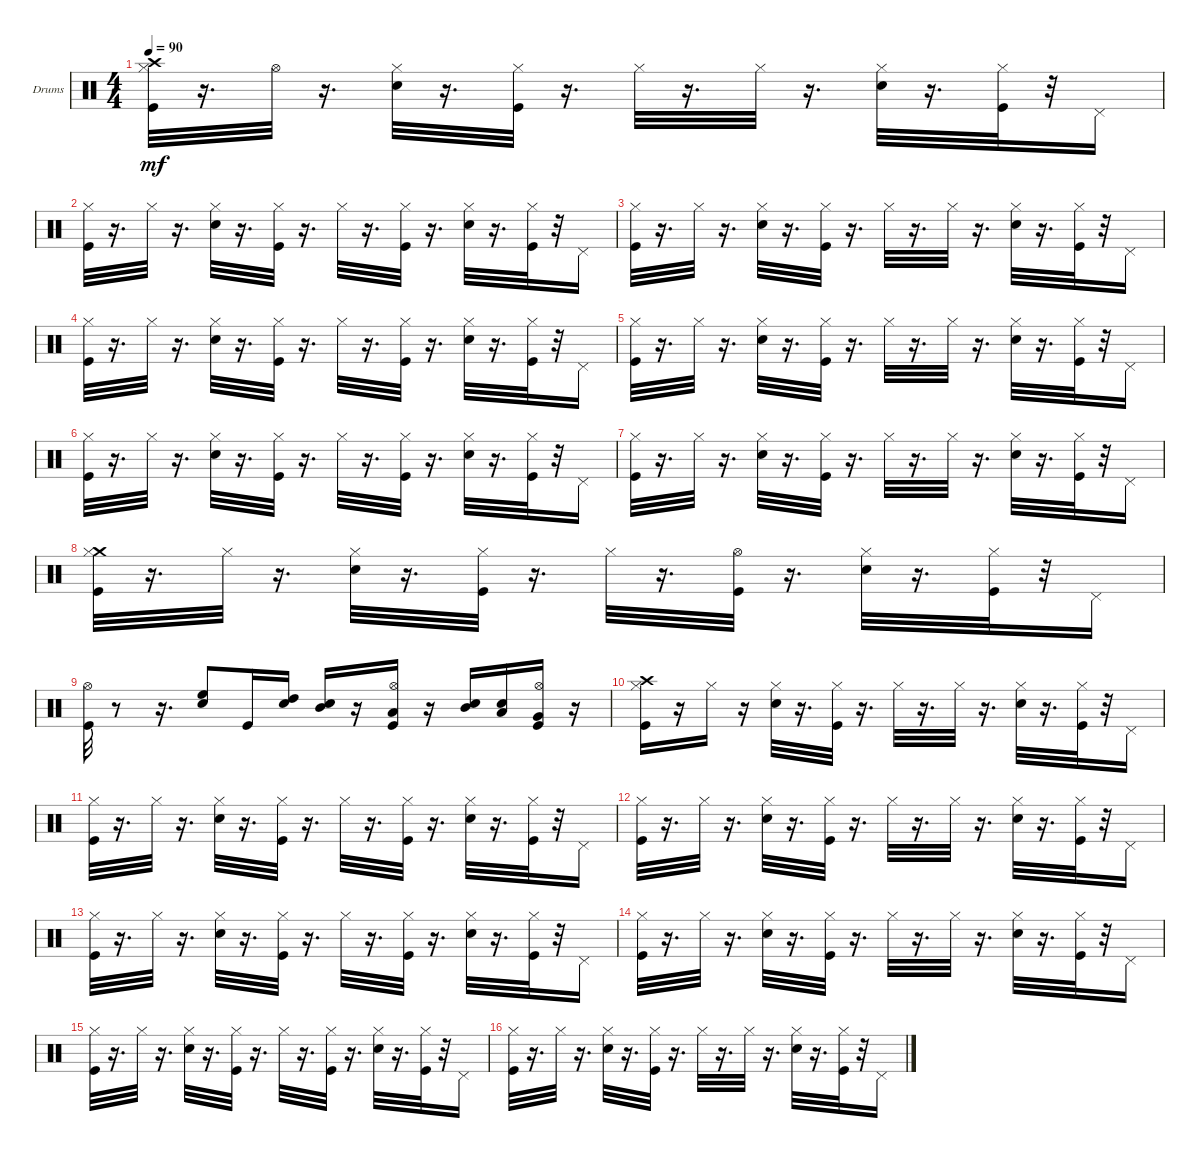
\bracketExtendMode groupsimilarinstruments
\firstSystemTrackNameOrientation horizontal
\otherSystemsTrackNameOrientation horizontal
\track ("Drumkit" "Drums") {instrument percussion}
\staff {score}
\articulation defaults
\ts (4 4)
\tempo 90
\clef neutral
\ks c
("Crash high (hit)" "Kick (hit)" "Hi-Hat (closed)").32{dy mf} r.16{d} "Hi-Hat (open)".32 r.16{d} ("Snare (hit) 2" "Hi-Hat (closed)").32 r.16{d} ("Kick (hit)" "Hi-Hat (closed)").32 r.16{d} "Hi-Hat (closed)".32 r.16{d} "Hi-Hat (closed)".32 r.16{d} ("Snare (hit) 2" "Hi-Hat (closed)").32 r.16{d} ("Kick (hit)" "Hi-Hat (closed)").32 r.32 "Pedal Hi-Hat (hit)".16 |
("Kick (hit)" "Hi-Hat (closed)").32 r.16{d} "Hi-Hat (closed)".32 r.16{d} ("Snare (hit) 2" "Hi-Hat (closed)").32 r.16{d} ("Kick (hit)" "Hi-Hat (closed)").32 r.16{d} "Hi-Hat (closed)".32 r.16{d} ("Kick (hit)" "Hi-Hat (closed)").32 r.16{d} ("Snare (hit) 2" "Hi-Hat (closed)").32 r.16{d} ("Kick (hit)" "Hi-Hat (closed)").32 r.32 "Pedal Hi-Hat (hit)".16 |
("Kick (hit)" "Hi-Hat (closed)").32 r.16{d} "Hi-Hat (closed)".32 r.16{d} ("Snare (hit) 2" "Hi-Hat (closed)").32 r.16{d} ("Kick (hit)" "Hi-Hat (closed)").32 r.16{d} "Hi-Hat (closed)".32 r.16{d} "Hi-Hat (closed)".32 r.16{d} ("Snare (hit) 2" "Hi-Hat (closed)").32 r.16{d} ("Kick (hit)" "Hi-Hat (closed)").32 r.32 "Pedal Hi-Hat (hit)".16 |
("Kick (hit)" "Hi-Hat (closed)").32 r.16{d} "Hi-Hat (closed)".32 r.16{d} ("Snare (hit) 2" "Hi-Hat (closed)").32 r.16{d} ("Kick (hit)" "Hi-Hat (closed)").32 r.16{d} "Hi-Hat (closed)".32 r.16{d} ("Kick (hit)" "Hi-Hat (closed)").32 r.16{d} ("Snare (hit) 2" "Hi-Hat (closed)").32 r.16{d} ("Kick (hit)" "Hi-Hat (closed)").32 r.32 "Pedal Hi-Hat (hit)".16 |
("Kick (hit)" "Hi-Hat (closed)").32 r.16{d} "Hi-Hat (closed)".32 r.16{d} ("Snare (hit) 2" "Hi-Hat (closed)").32 r.16{d} ("Kick (hit)" "Hi-Hat (closed)").32 r.16{d} "Hi-Hat (closed)".32 r.16{d} "Hi-Hat (closed)".32 r.16{d} ("Snare (hit) 2" "Hi-Hat (closed)").32 r.16{d} ("Kick (hit)" "Hi-Hat (closed)").32 r.32 "Pedal Hi-Hat (hit)".16 |
("Kick (hit)" "Hi-Hat (closed)").32 r.16{d} "Hi-Hat (closed)".32 r.16{d} ("Snare (hit) 2" "Hi-Hat (closed)").32 r.16{d} ("Kick (hit)" "Hi-Hat (closed)").32 r.16{d} "Hi-Hat (closed)".32 r.16{d} ("Kick (hit)" "Hi-Hat (closed)").32 r.16{d} ("Snare (hit) 2" "Hi-Hat (closed)").32 r.16{d} ("Kick (hit)" "Hi-Hat (closed)").32 r.32 "Pedal Hi-Hat (hit)".16 |
("Kick (hit)" "Hi-Hat (closed)").32 r.16{d} "Hi-Hat (closed)".32 r.16{d} ("Snare (hit) 2" "Hi-Hat (closed)").32 r.16{d} ("Kick (hit)" "Hi-Hat (closed)").32 r.16{d} "Hi-Hat (closed)".32 r.16{d} "Hi-Hat (closed)".32 r.16{d} ("Snare (hit) 2" "Hi-Hat (closed)").32 r.16{d} ("Kick (hit)" "Hi-Hat (closed)").32 r.32 "Pedal Hi-Hat (hit)".16 |
("Crash medium (hit)" "Hi-Hat (closed)" "Kick (hit)").32 r.16{d} "Hi-Hat (closed)".32 r.16{d} ("Snare (hit) 2" "Hi-Hat (closed)").32 r.16{d} ("Hi-Hat (closed)" "Kick (hit)").32 r.16{d} "Hi-Hat (closed)".32 r.16{d} ("Kick (hit)" "Hi-Hat (open)").32 r.16{d} ("Snare (hit) 2" "Hi-Hat (closed)").32 r.16{d} ("Hi-Hat (closed)" "Kick (hit)").32 r.32 "Pedal Hi-Hat (hit)".16 |
("Hi-Hat (open)" "Kick (hit)").32 r.8 r.16{d} ("Snare (hit) 2" "High Floor Tom (hit)").8 "Kick (hit)".16 ("Snare (hit) 2" "High Tom (hit)").16 ("Snare (hit) 2" "Mid Tom (hit)").16 r.16 ("Low Tom (hit)" "Hi-Hat (open)" "Kick (hit)").16 r.16 ("Snare (hit) 2" "Mid Tom (hit)").16 ("Snare (hit) 2" "Low Tom (hit)").16 ("Very Low Tom (hit)" "Hi-Hat (open)" "Kick (hit)").16 r.16 |
("Crash high (hit)" "Hi-Hat (closed)" "Kick (hit)").16 r.16 "Hi-Hat (closed)".16 r.16 ("Snare (hit) 2" "Hi-Hat (closed)").32 r.16{d} ("Hi-Hat (closed)" "Kick (hit)").32 r.16{d} "Hi-Hat (closed)".32 r.16{d} "Hi-Hat (closed)".32 r.16{d} ("Snare (hit) 2" "Hi-Hat (closed)").32 r.16{d} ("Hi-Hat (closed)" "Kick (hit)").32 r.32 "Pedal Hi-Hat (hit)".16 |
("Kick (hit)" "Hi-Hat (closed)").32 r.16{d} "Hi-Hat (closed)".32 r.16{d} ("Snare (hit) 2" "Hi-Hat (closed)").32 r.16{d} ("Kick (hit)" "Hi-Hat (closed)").32 r.16{d} "Hi-Hat (closed)".32 r.16{d} ("Kick (hit)" "Hi-Hat (closed)").32 r.16{d} ("Snare (hit) 2" "Hi-Hat (closed)").32 r.16{d} ("Kick (hit)" "Hi-Hat (closed)").32 r.32 "Pedal Hi-Hat (hit)".16 |
("Kick (hit)" "Hi-Hat (closed)").32 r.16{d} "Hi-Hat (closed)".32 r.16{d} ("Snare (hit) 2" "Hi-Hat (closed)").32 r.16{d} ("Kick (hit)" "Hi-Hat (closed)").32 r.16{d} "Hi-Hat (closed)".32 r.16{d} "Hi-Hat (closed)".32 r.16{d} ("Snare (hit) 2" "Hi-Hat (closed)").32 r.16{d} ("Kick (hit)" "Hi-Hat (closed)").32 r.32 "Pedal Hi-Hat (hit)".16 |
("Kick (hit)" "Hi-Hat (closed)").32 r.16{d} "Hi-Hat (closed)".32 r.16{d} ("Snare (hit) 2" "Hi-Hat (closed)").32 r.16{d} ("Kick (hit)" "Hi-Hat (closed)").32 r.16{d} "Hi-Hat (closed)".32 r.16{d} ("Kick (hit)" "Hi-Hat (closed)").32 r.16{d} ("Snare (hit) 2" "Hi-Hat (closed)").32 r.16{d} ("Kick (hit)" "Hi-Hat (closed)").32 r.32 "Pedal Hi-Hat (hit)".16 |
("Kick (hit)" "Hi-Hat (closed)").32 r.16{d} "Hi-Hat (closed)".32 r.16{d} ("Snare (hit) 2" "Hi-Hat (closed)").32 r.16{d} ("Kick (hit)" "Hi-Hat (closed)").32 r.16{d} "Hi-Hat (closed)".32 r.16{d} "Hi-Hat (closed)".32 r.16{d} ("Snare (hit) 2" "Hi-Hat (closed)").32 r.16{d} ("Kick (hit)" "Hi-Hat (closed)").32 r.32 "Pedal Hi-Hat (hit)".16 |
("Kick (hit)" "Hi-Hat (closed)").32 r.16{d} "Hi-Hat (closed)".32 r.16{d} ("Snare (hit) 2" "Hi-Hat (closed)").32 r.16{d} ("Kick (hit)" "Hi-Hat (closed)").32 r.16{d} "Hi-Hat (closed)".32 r.16{d} ("Kick (hit)" "Hi-Hat (closed)").32 r.16{d} ("Snare (hit) 2" "Hi-Hat (closed)").32 r.16{d} ("Kick (hit)" "Hi-Hat (closed)").32 r.32 "Pedal Hi-Hat (hit)".16 |
("Kick (hit)" "Hi-Hat (closed)").32 r.16{d} "Hi-Hat (closed)".32 r.16{d} ("Snare (hit) 2" "Hi-Hat (closed)").32 r.16{d} ("Kick (hit)" "Hi-Hat (closed)").32 r.16{d} "Hi-Hat (closed)".32 r.16{d} "Hi-Hat (closed)".32 r.16{d} ("Snare (hit) 2" "Hi-Hat (closed)").32 r.16{d} ("Kick (hit)" "Hi-Hat (closed)").32 r.32 "Pedal Hi-Hat (hit)".16
